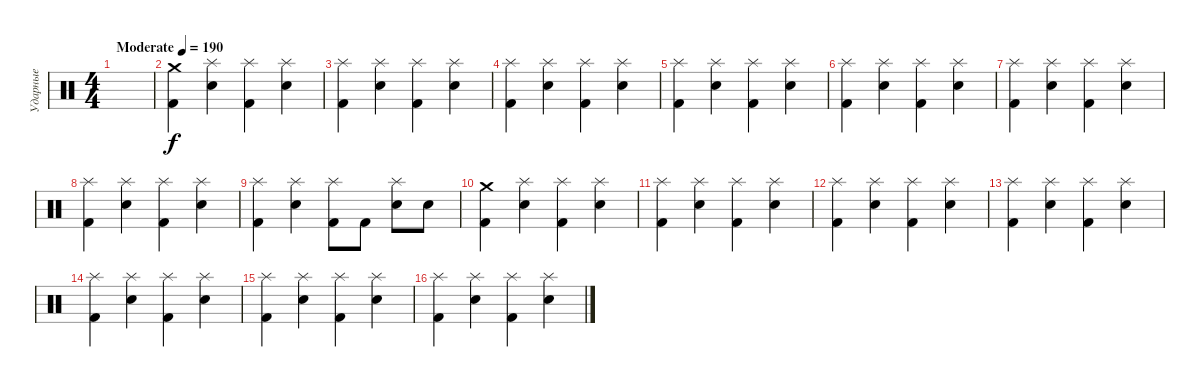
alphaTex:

\track ("Ударные" "Ударные") {instrument percussion}
\staff {score}
\articulation defaults
\ts (4 4)
\tempo (190 "Moderate")
\clef neutral
\ks c
|
("Crash medium (hit)" "Kick (hit) 2").4 ("Splash (hit)" "Snare (hit) 2").4 ("Splash (hit)" "Kick (hit) 2").4 ("Splash (hit)" "Snare (hit) 2").4 |
("Splash (hit)" "Kick (hit) 2").4 ("Splash (hit)" "Snare (hit) 2").4 ("Splash (hit)" "Kick (hit) 2").4 ("Splash (hit)" "Snare (hit) 2").4 |
("Splash (hit)" "Kick (hit) 2").4 ("Splash (hit)" "Snare (hit) 2").4 ("Splash (hit)" "Kick (hit) 2").4 ("Splash (hit)" "Snare (hit) 2").4 |
("Splash (hit)" "Kick (hit) 2").4 ("Splash (hit)" "Snare (hit) 2").4 ("Splash (hit)" "Kick (hit) 2").4 ("Splash (hit)" "Snare (hit) 2").4 |
("Splash (hit)" "Kick (hit) 2").4 ("Splash (hit)" "Snare (hit) 2").4 ("Splash (hit)" "Kick (hit) 2").4 ("Splash (hit)" "Snare (hit) 2").4 |
("Splash (hit)" "Kick (hit) 2").4 ("Splash (hit)" "Snare (hit) 2").4 ("Splash (hit)" "Kick (hit) 2").4 ("Splash (hit)" "Snare (hit) 2").4 |
("Splash (hit)" "Kick (hit) 2").4 ("Splash (hit)" "Snare (hit) 2").4 ("Splash (hit)" "Kick (hit) 2").4 ("Splash (hit)" "Snare (hit) 2").4 |
("Splash (hit)" "Kick (hit) 2").4 ("Splash (hit)" "Snare (hit) 2").4 ("Splash (hit)" "Kick (hit) 2").8 "Kick (hit) 2".8 ("Splash (hit)" "Snare (hit) 2").8 "Snare (hit) 2".8 |
("Crash medium (hit)" "Kick (hit) 2").4 ("Splash (hit)" "Snare (hit) 2").4 ("Splash (hit)" "Kick (hit) 2").4 ("Splash (hit)" "Snare (hit) 2").4 |
("Splash (hit)" "Kick (hit) 2").4 ("Splash (hit)" "Snare (hit) 2").4 ("Splash (hit)" "Kick (hit) 2").4 ("Splash (hit)" "Snare (hit) 2").4 |
("Splash (hit)" "Kick (hit) 2").4 ("Splash (hit)" "Snare (hit) 2").4 ("Splash (hit)" "Kick (hit) 2").4 ("Splash (hit)" "Snare (hit) 2").4 |
("Splash (hit)" "Kick (hit) 2").4 ("Splash (hit)" "Snare (hit) 2").4 ("Splash (hit)" "Kick (hit) 2").4 ("Splash (hit)" "Snare (hit) 2").4 |
("Splash (hit)" "Kick (hit) 2").4 ("Splash (hit)" "Snare (hit) 2").4 ("Splash (hit)" "Kick (hit) 2").4 ("Splash (hit)" "Snare (hit) 2").4 |
("Splash (hit)" "Kick (hit) 2").4 ("Splash (hit)" "Snare (hit) 2").4 ("Splash (hit)" "Kick (hit) 2").4 ("Splash (hit)" "Snare (hit) 2").4 |
("Splash (hit)" "Kick (hit) 2").4 ("Splash (hit)" "Snare (hit) 2").4 ("Splash (hit)" "Kick (hit) 2").4 ("Splash (hit)" "Snare (hit) 2").4
